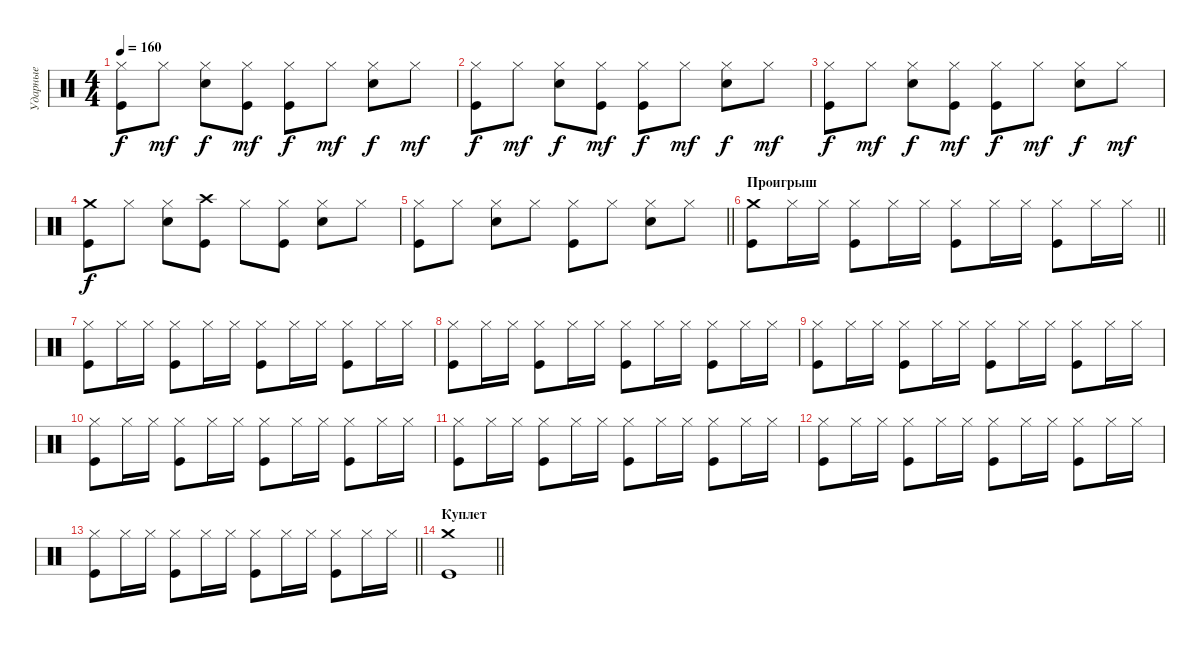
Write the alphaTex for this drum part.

\track ("Ударные" "Ударные") {instrument percussion}
\staff {score}
\articulation defaults
\ts (4 4)
\tempo 160
\clef neutral
\ks c
("Hi-Hat (closed)" "Kick (hit)").8{dy f} "Hi-Hat (closed)".8{dy mf} ("Hi-Hat (closed)" "Electric Snare (hit)").8{dy f} ("Hi-Hat (closed)" "Kick (hit)").8{dy mf} ("Hi-Hat (closed)" "Kick (hit)").8{dy f} "Hi-Hat (closed)".8{dy mf} ("Hi-Hat (closed)" "Electric Snare (hit)").8{dy f} "Hi-Hat (closed)".8{dy mf} |
("Hi-Hat (closed)" "Kick (hit)").8{dy f} "Hi-Hat (closed)".8{dy mf} ("Hi-Hat (closed)" "Electric Snare (hit)").8{dy f} ("Hi-Hat (closed)" "Kick (hit)").8{dy mf} ("Hi-Hat (closed)" "Kick (hit)").8{dy f} "Hi-Hat (closed)".8{dy mf} ("Hi-Hat (closed)" "Electric Snare (hit)").8{dy f} "Hi-Hat (closed)".8{dy mf} |
("Hi-Hat (closed)" "Kick (hit)").8{dy f} "Hi-Hat (closed)".8{dy mf} ("Hi-Hat (closed)" "Electric Snare (hit)").8{dy f} ("Hi-Hat (closed)" "Kick (hit)").8{dy mf} ("Hi-Hat (closed)" "Kick (hit)").8{dy f} "Hi-Hat (closed)".8{dy mf} ("Hi-Hat (closed)" "Electric Snare (hit)").8{dy f} "Hi-Hat (closed)".8{dy mf} |
("Crash medium (hit)" "Kick (hit)").8{dy f} "Hi-Hat (closed)".8 ("Hi-Hat (closed)" "Electric Snare (hit)").8 ("Crash high (hit)" "Kick (hit)").8 "Hi-Hat (closed)".8 ("Hi-Hat (closed)" "Kick (hit)").8 ("Hi-Hat (closed)" "Electric Snare (hit)").8 "Hi-Hat (closed)".8 |
\barLineRight lightlight
("Hi-Hat (closed)" "Kick (hit)").8 "Hi-Hat (closed)".8 ("Hi-Hat (closed)" "Electric Snare (hit)").8 "Hi-Hat (closed)".8 ("Hi-Hat (closed)" "Kick (hit)").8 "Hi-Hat (closed)".8 ("Hi-Hat (closed)" "Electric Snare (hit)").8 "Hi-Hat (closed)".8 |
\section ("" "Проигрыш")
\barLineRight lightlight
("Crash medium (hit)" "Kick (hit)").8 "Hi-Hat (closed)".16 "Hi-Hat (closed)".16 ("Hi-Hat (closed)" "Kick (hit)").8 "Hi-Hat (closed)".16 "Hi-Hat (closed)".16 ("Hi-Hat (closed)" "Kick (hit)").8 "Hi-Hat (closed)".16 "Hi-Hat (closed)".16 ("Hi-Hat (closed)" "Kick (hit)").8 "Hi-Hat (closed)".16 "Hi-Hat (closed)".16 |
("Hi-Hat (closed)" "Kick (hit)").8 "Hi-Hat (closed)".16 "Hi-Hat (closed)".16 ("Hi-Hat (closed)" "Kick (hit)").8 "Hi-Hat (closed)".16 "Hi-Hat (closed)".16 ("Hi-Hat (closed)" "Kick (hit)").8 "Hi-Hat (closed)".16 "Hi-Hat (closed)".16 ("Hi-Hat (closed)" "Kick (hit)").8 "Hi-Hat (closed)".16 "Hi-Hat (closed)".16 |
("Hi-Hat (closed)" "Kick (hit)").8 "Hi-Hat (closed)".16 "Hi-Hat (closed)".16 ("Hi-Hat (closed)" "Kick (hit)").8 "Hi-Hat (closed)".16 "Hi-Hat (closed)".16 ("Hi-Hat (closed)" "Kick (hit)").8 "Hi-Hat (closed)".16 "Hi-Hat (closed)".16 ("Hi-Hat (closed)" "Kick (hit)").8 "Hi-Hat (closed)".16 "Hi-Hat (closed)".16 |
("Hi-Hat (closed)" "Kick (hit)").8 "Hi-Hat (closed)".16 "Hi-Hat (closed)".16 ("Hi-Hat (closed)" "Kick (hit)").8 "Hi-Hat (closed)".16 "Hi-Hat (closed)".16 ("Hi-Hat (closed)" "Kick (hit)").8 "Hi-Hat (closed)".16 "Hi-Hat (closed)".16 ("Hi-Hat (closed)" "Kick (hit)").8 "Hi-Hat (closed)".16 "Hi-Hat (closed)".16 |
("Hi-Hat (closed)" "Kick (hit)").8 "Hi-Hat (closed)".16 "Hi-Hat (closed)".16 ("Hi-Hat (closed)" "Kick (hit)").8 "Hi-Hat (closed)".16 "Hi-Hat (closed)".16 ("Hi-Hat (closed)" "Kick (hit)").8 "Hi-Hat (closed)".16 "Hi-Hat (closed)".16 ("Hi-Hat (closed)" "Kick (hit)").8 "Hi-Hat (closed)".16 "Hi-Hat (closed)".16 |
("Hi-Hat (closed)" "Kick (hit)").8 "Hi-Hat (closed)".16 "Hi-Hat (closed)".16 ("Hi-Hat (closed)" "Kick (hit)").8 "Hi-Hat (closed)".16 "Hi-Hat (closed)".16 ("Hi-Hat (closed)" "Kick (hit)").8 "Hi-Hat (closed)".16 "Hi-Hat (closed)".16 ("Hi-Hat (closed)" "Kick (hit)").8 "Hi-Hat (closed)".16 "Hi-Hat (closed)".16 |
("Hi-Hat (closed)" "Kick (hit)").8 "Hi-Hat (closed)".16 "Hi-Hat (closed)".16 ("Hi-Hat (closed)" "Kick (hit)").8 "Hi-Hat (closed)".16 "Hi-Hat (closed)".16 ("Hi-Hat (closed)" "Kick (hit)").8 "Hi-Hat (closed)".16 "Hi-Hat (closed)".16 ("Hi-Hat (closed)" "Kick (hit)").8 "Hi-Hat (closed)".16 "Hi-Hat (closed)".16 |
\barLineRight lightlight
("Hi-Hat (closed)" "Kick (hit)").8 "Hi-Hat (closed)".16 "Hi-Hat (closed)".16 ("Hi-Hat (closed)" "Kick (hit)").8 "Hi-Hat (closed)".16 "Hi-Hat (closed)".16 ("Hi-Hat (closed)" "Kick (hit)").8 "Hi-Hat (closed)".16 "Hi-Hat (closed)".16 ("Hi-Hat (closed)" "Kick (hit)").8 "Hi-Hat (closed)".16 "Hi-Hat (closed)".16 |
\section ("" "Куплет")
\barLineRight lightlight
("Crash medium (hit)" "Kick (hit)").1
